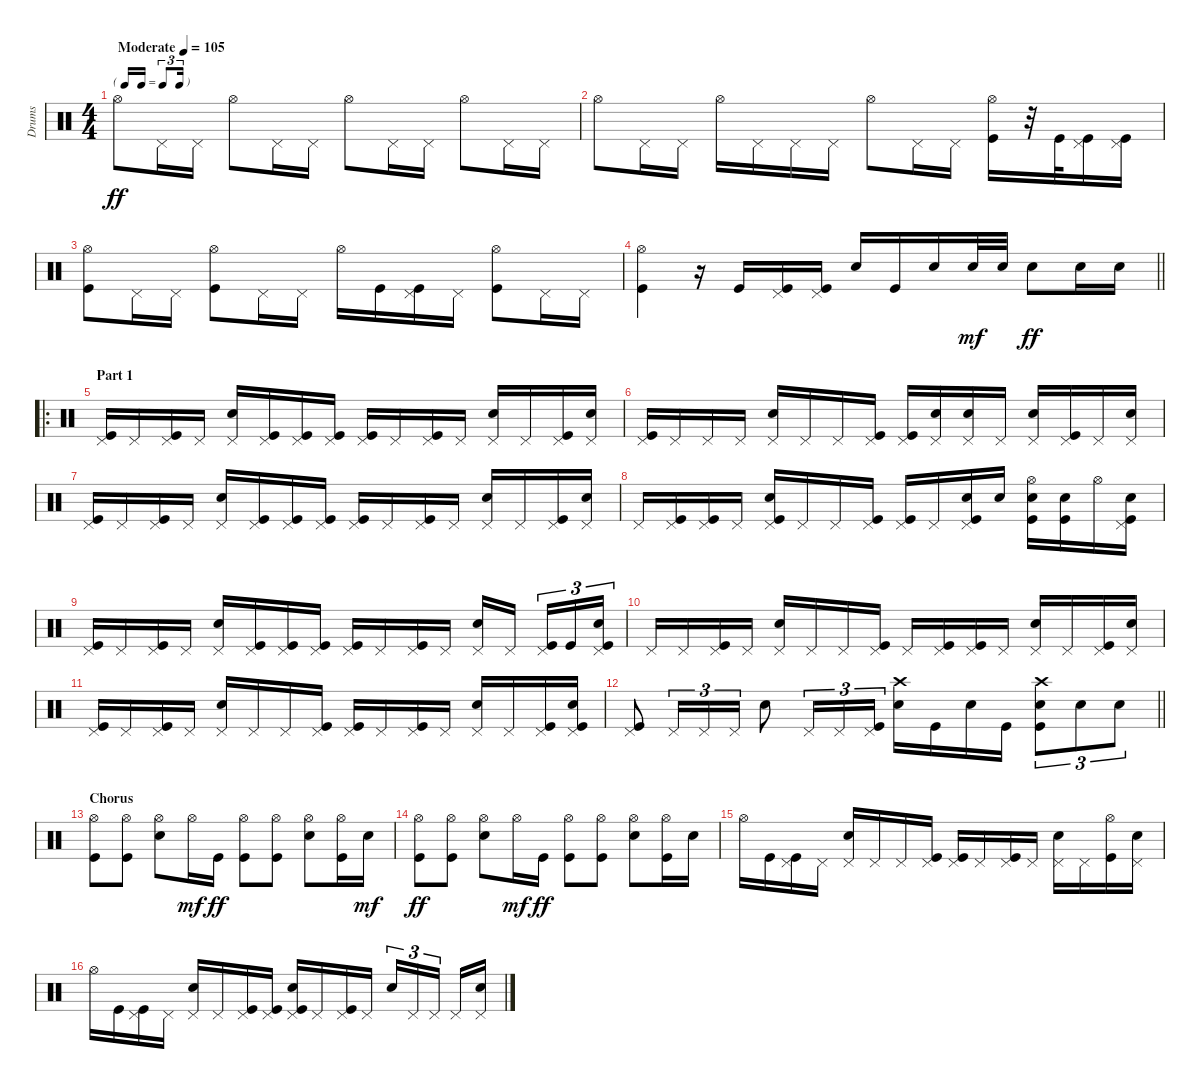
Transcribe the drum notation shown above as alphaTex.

\track ("Drums" "Drums") {instrument percussion}
\staff {score}
\articulation defaults
\ts (4 4)
\tf triplet16th
\tempo (105 "Moderate")
\clef neutral
\ks c "Hi-Hat (open)".8{dy ff} "Pedal Hi-Hat (hit)".16 "Pedal Hi-Hat (hit)".16 "Hi-Hat (open)".8 "Pedal Hi-Hat (hit)".16 "Pedal Hi-Hat (hit)".16 "Hi-Hat (open)".8 "Pedal Hi-Hat (hit)".16 "Pedal Hi-Hat (hit)".16 "Hi-Hat (open)".8 "Pedal Hi-Hat (hit)".16 "Pedal Hi-Hat (hit)".16
|
"Hi-Hat (open)".8 "Pedal Hi-Hat (hit)".16 "Pedal Hi-Hat (hit)".16 "Hi-Hat (open)".16 "Pedal Hi-Hat (hit)".16 "Pedal Hi-Hat (hit)".16 "Pedal Hi-Hat (hit)".16 "Hi-Hat (open)".8 "Pedal Hi-Hat (hit)".16 "Pedal Hi-Hat (hit)".16 ("Hi-Hat (open)" "Kick (hit)").16 r.32 "Kick (hit)".32 ("Pedal Hi-Hat (hit)" "Kick (hit)").16 ("Pedal Hi-Hat (hit)" "Kick (hit)").16 |
("Hi-Hat (open)" "Kick (hit)").8 "Pedal Hi-Hat (hit)".16 "Pedal Hi-Hat (hit)".16 ("Hi-Hat (open)" "Kick (hit)").8 "Pedal Hi-Hat (hit)".16 "Pedal Hi-Hat (hit)".16 "Hi-Hat (open)".16 "Kick (hit)".16 ("Pedal Hi-Hat (hit)" "Kick (hit)").16 "Pedal Hi-Hat (hit)".16 ("Hi-Hat (open)" "Kick (hit)").8 "Pedal Hi-Hat (hit)".16 "Pedal Hi-Hat (hit)".16 |
\barLineRight lightlight
("Hi-Hat (open)" "Kick (hit)").4 r.16 "Kick (hit)".16 ("Pedal Hi-Hat (hit)" "Kick (hit)").16 ("Pedal Hi-Hat (hit)" "Kick (hit)").16 "Snare (hit) 2".16 "Kick (hit)".16 "Snare (hit) 2".16 "Snare (hit) 2".32{dy mf} "Snare (hit) 2".32 "Snare (hit) 2".8{dy ff} "Snare (hit) 2".16 "Snare (hit) 2".16 |
\ro
\section ("" "Part 1")
("Pedal Hi-Hat (hit)" "Kick (hit)").16 "Pedal Hi-Hat (hit)".16 ("Pedal Hi-Hat (hit)" "Kick (hit)").16 "Pedal Hi-Hat (hit)".16 ("Pedal Hi-Hat (hit)" "Snare (hit) 2").16 ("Pedal Hi-Hat (hit)" "Kick (hit)").16 ("Pedal Hi-Hat (hit)" "Kick (hit)").16 ("Pedal Hi-Hat (hit)" "Kick (hit)").16 ("Pedal Hi-Hat (hit)" "Kick (hit)").16 "Pedal Hi-Hat (hit)".16 ("Pedal Hi-Hat (hit)" "Kick (hit)").16 "Pedal Hi-Hat (hit)".16 ("Pedal Hi-Hat (hit)" "Snare (hit) 2").16 "Pedal Hi-Hat (hit)".16 ("Pedal Hi-Hat (hit)" "Kick (hit)").16 ("Pedal Hi-Hat (hit)" "Snare (hit) 2").16 |
("Pedal Hi-Hat (hit)" "Kick (hit)").16 "Pedal Hi-Hat (hit)".16 "Pedal Hi-Hat (hit)".16 "Pedal Hi-Hat (hit)".16 ("Pedal Hi-Hat (hit)" "Snare (hit) 2").16 "Pedal Hi-Hat (hit)".16 "Pedal Hi-Hat (hit)".16 ("Pedal Hi-Hat (hit)" "Kick (hit)").16 ("Pedal Hi-Hat (hit)" "Kick (hit)").16 ("Pedal Hi-Hat (hit)" "Snare (hit) 2").16 ("Pedal Hi-Hat (hit)" "Snare (hit) 2").16 "Pedal Hi-Hat (hit)".16 ("Pedal Hi-Hat (hit)" "Snare (hit) 2").16 ("Pedal Hi-Hat (hit)" "Kick (hit)").16 "Pedal Hi-Hat (hit)".16 ("Pedal Hi-Hat (hit)" "Snare (hit) 2").16 |
("Pedal Hi-Hat (hit)" "Kick (hit)").16 "Pedal Hi-Hat (hit)".16 ("Pedal Hi-Hat (hit)" "Kick (hit)").16 "Pedal Hi-Hat (hit)".16 ("Pedal Hi-Hat (hit)" "Snare (hit) 2").16 ("Pedal Hi-Hat (hit)" "Kick (hit)").16 ("Pedal Hi-Hat (hit)" "Kick (hit)").16 ("Pedal Hi-Hat (hit)" "Kick (hit)").16 ("Pedal Hi-Hat (hit)" "Kick (hit)").16 "Pedal Hi-Hat (hit)".16 ("Pedal Hi-Hat (hit)" "Kick (hit)").16 "Pedal Hi-Hat (hit)".16 ("Pedal Hi-Hat (hit)" "Snare (hit) 2").16 "Pedal Hi-Hat (hit)".16 ("Pedal Hi-Hat (hit)" "Kick (hit)").16 ("Pedal Hi-Hat (hit)" "Snare (hit) 2").16 |
"Pedal Hi-Hat (hit)".16 ("Pedal Hi-Hat (hit)" "Kick (hit)").16 ("Pedal Hi-Hat (hit)" "Kick (hit)").16 "Pedal Hi-Hat (hit)".16 ("Pedal Hi-Hat (hit)" "Snare (hit) 2" "Kick (hit)").16 "Pedal Hi-Hat (hit)".16 "Pedal Hi-Hat (hit)".16 ("Pedal Hi-Hat (hit)" "Kick (hit)").16 ("Pedal Hi-Hat (hit)" "Kick (hit)").16 "Pedal Hi-Hat (hit)".16 ("Pedal Hi-Hat (hit)" "Snare (hit) 2" "Kick (hit)").16 "Snare (hit) 2".16 ("Hi-Hat (open)" "Snare (hit) 2" "Kick (hit)").16 ("Snare (hit) 2" "Kick (hit)").16 "Hi-Hat (open)".16 ("Pedal Hi-Hat (hit)" "Snare (hit) 2" "Kick (hit)").16 |
("Pedal Hi-Hat (hit)" "Kick (hit)").16 "Pedal Hi-Hat (hit)".16 ("Pedal Hi-Hat (hit)" "Kick (hit)").16 "Pedal Hi-Hat (hit)".16 ("Pedal Hi-Hat (hit)" "Snare (hit) 2").16 ("Pedal Hi-Hat (hit)" "Kick (hit)").16 ("Pedal Hi-Hat (hit)" "Kick (hit)").16 ("Pedal Hi-Hat (hit)" "Kick (hit)").16 ("Pedal Hi-Hat (hit)" "Kick (hit)").16 "Pedal Hi-Hat (hit)".16 ("Pedal Hi-Hat (hit)" "Kick (hit)").16 "Pedal Hi-Hat (hit)".16 ("Pedal Hi-Hat (hit)" "Snare (hit) 2").16 "Pedal Hi-Hat (hit)".16{beam splitsecondary} ("Pedal Hi-Hat (hit)" "Kick (hit)").16{tu (3 2)} "Kick (hit)".16{tu (3 2)} ("Pedal Hi-Hat (hit)" "Snare (hit) 2" "Kick (hit)").16{tu (3 2)} |
"Pedal Hi-Hat (hit)".16 "Pedal Hi-Hat (hit)".16 ("Pedal Hi-Hat (hit)" "Kick (hit)").16 "Pedal Hi-Hat (hit)".16 ("Pedal Hi-Hat (hit)" "Snare (hit) 2").16 "Pedal Hi-Hat (hit)".16 "Pedal Hi-Hat (hit)".16 ("Pedal Hi-Hat (hit)" "Kick (hit)").16 "Pedal Hi-Hat (hit)".16 ("Pedal Hi-Hat (hit)" "Kick (hit)").16 ("Pedal Hi-Hat (hit)" "Kick (hit)").16 "Pedal Hi-Hat (hit)".16 ("Pedal Hi-Hat (hit)" "Snare (hit) 2").16 "Pedal Hi-Hat (hit)".16 ("Pedal Hi-Hat (hit)" "Kick (hit)").16 ("Pedal Hi-Hat (hit)" "Snare (hit) 2").16 |
("Pedal Hi-Hat (hit)" "Kick (hit)").16 "Pedal Hi-Hat (hit)".16 ("Pedal Hi-Hat (hit)" "Kick (hit)").16 "Pedal Hi-Hat (hit)".16 ("Pedal Hi-Hat (hit)" "Snare (hit) 2").16 "Pedal Hi-Hat (hit)".16 "Pedal Hi-Hat (hit)".16 ("Pedal Hi-Hat (hit)" "Kick (hit)").16 ("Pedal Hi-Hat (hit)" "Kick (hit)").16 "Pedal Hi-Hat (hit)".16 ("Pedal Hi-Hat (hit)" "Kick (hit)").16 "Pedal Hi-Hat (hit)".16 ("Pedal Hi-Hat (hit)" "Snare (hit) 2").16 "Pedal Hi-Hat (hit)".16 ("Pedal Hi-Hat (hit)" "Kick (hit)").16 ("Pedal Hi-Hat (hit)" "Snare (hit) 2" "Kick (hit)").16 |
\barLineRight lightlight
("Pedal Hi-Hat (hit)" "Kick (hit)").8 "Pedal Hi-Hat (hit)".16{tu (3 2)} "Pedal Hi-Hat (hit)".16{tu (3 2)} "Pedal Hi-Hat (hit)".16{tu (3 2)} "Snare (hit) 2".8 "Pedal Hi-Hat (hit)".16{tu (3 2)} "Pedal Hi-Hat (hit)".16{tu (3 2)} ("Pedal Hi-Hat (hit)" "Kick (hit)").16{tu (3 2)} ("Crash high (hit)" "Snare (hit) 2").16 "Kick (hit)".16 "Snare (hit) 2".16 "Kick (hit)".16 ("Crash high (hit)" "Snare (hit) 2" "Kick (hit)").8{tu (3 2)} "Snare (hit) 2".8{tu (3 2)} "Snare (hit) 2".8{tu (3 2)} |
\section ("" "Chorus")
("Hi-Hat (open)" "Kick (hit)").8 ("Hi-Hat (open)" "Kick (hit)").8 ("Hi-Hat (open)" "Snare (hit) 2").8 "Hi-Hat (open)".16{dy mf} "Kick (hit)".16{dy ff} ("Hi-Hat (open)" "Kick (hit)").8 ("Hi-Hat (open)" "Kick (hit)").8 ("Hi-Hat (open)" "Snare (hit) 2").8 ("Hi-Hat (open)" "Kick (hit)").16 "Snare (hit) 2".16{dy mf} |
("Hi-Hat (open)" "Kick (hit)").8{dy ff} ("Hi-Hat (open)" "Kick (hit)").8 ("Hi-Hat (open)" "Snare (hit) 2").8 "Hi-Hat (open)".16{dy mf} "Kick (hit)".16{dy ff} ("Hi-Hat (open)" "Kick (hit)").8 ("Hi-Hat (open)" "Kick (hit)").8 ("Hi-Hat (open)" "Snare (hit) 2").8 ("Hi-Hat (open)" "Kick (hit)").16 "Snare (hit) 2".16 |
"Hi-Hat (open)".16 "Kick (hit)".16 ("Pedal Hi-Hat (hit)" "Kick (hit)").16 "Pedal Hi-Hat (hit)".16 ("Pedal Hi-Hat (hit)" "Snare (hit) 2").16 "Pedal Hi-Hat (hit)".16 "Pedal Hi-Hat (hit)".16 ("Pedal Hi-Hat (hit)" "Kick (hit)").16 ("Pedal Hi-Hat (hit)" "Kick (hit)").16 "Pedal Hi-Hat (hit)".16 ("Pedal Hi-Hat (hit)" "Kick (hit)").16 "Pedal Hi-Hat (hit)".16 ("Pedal Hi-Hat (hit)" "Snare (hit) 2").16 "Pedal Hi-Hat (hit)".16 ("Hi-Hat (open)" "Kick (hit)").16 ("Pedal Hi-Hat (hit)" "Snare (hit) 2").16 |
"Hi-Hat (open)".16 "Kick (hit)".16 ("Pedal Hi-Hat (hit)" "Kick (hit)").16 "Pedal Hi-Hat (hit)".16 ("Pedal Hi-Hat (hit)" "Snare (hit) 2").16 "Pedal Hi-Hat (hit)".16 ("Pedal Hi-Hat (hit)" "Kick (hit)").16 ("Pedal Hi-Hat (hit)" "Kick (hit)").16 ("Pedal Hi-Hat (hit)" "Snare (hit) 2" "Kick (hit)").16 "Pedal Hi-Hat (hit)".16 ("Pedal Hi-Hat (hit)" "Kick (hit)").16 "Pedal Hi-Hat (hit)".16 "Snare (hit) 2".16{tu (3 2)} "Pedal Hi-Hat (hit)".16{tu (3 2)} "Pedal Hi-Hat (hit)".16{tu (3 2) beam splitsecondary} "Pedal Hi-Hat (hit)".16 ("Pedal Hi-Hat (hit)" "Snare (hit) 2").16
